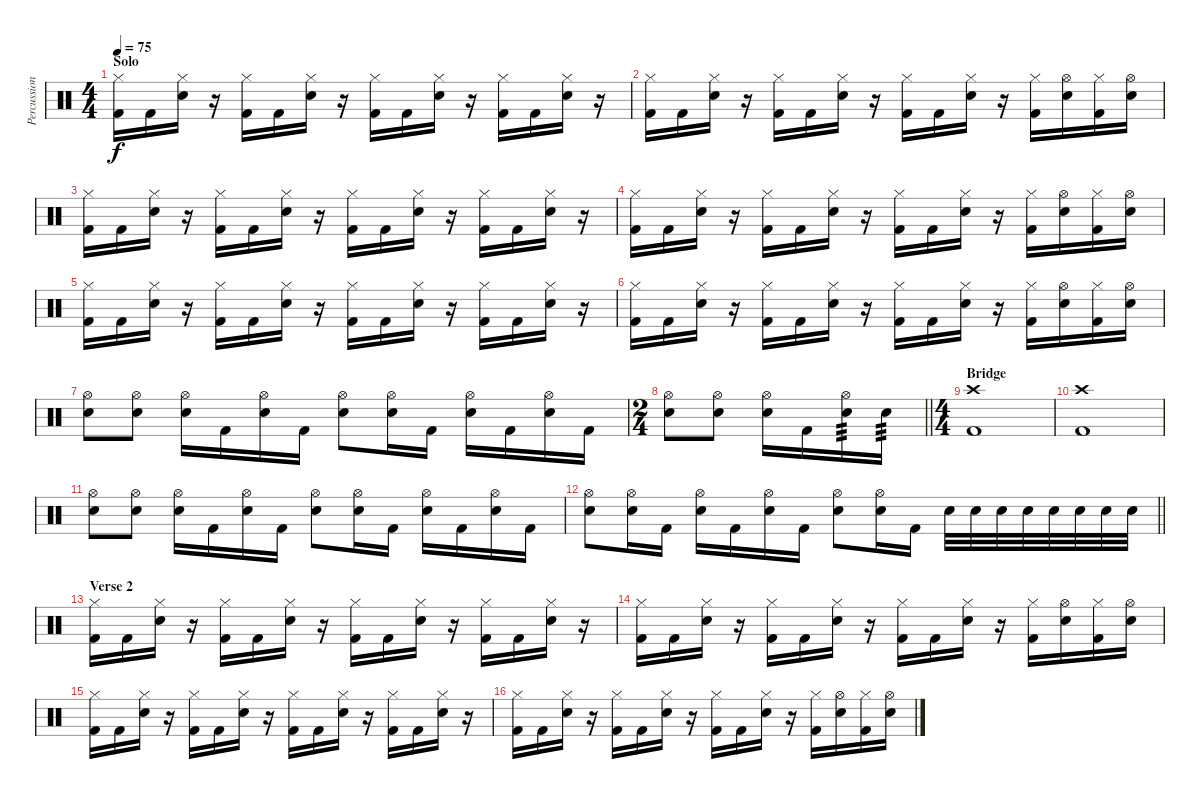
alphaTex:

\track ("Percussion" "Percussion") {instrument percussion}
\staff {score}
\articulation defaults
\ts (4 4)
\section ("" "Solo")
\tempo 75
\clef neutral
\ks c
("Hi-Hat (closed)" "Kick (hit) 2").16{dy f} "Kick (hit) 2".16 ("Hi-Hat (closed)" "Electric Snare (hit)").16 r.16 ("Hi-Hat (closed)" "Kick (hit) 2").16 "Kick (hit) 2".16 ("Hi-Hat (closed)" "Electric Snare (hit)").16 r.16 ("Hi-Hat (closed)" "Kick (hit) 2").16 "Kick (hit) 2".16 ("Hi-Hat (closed)" "Electric Snare (hit)").16 r.16 ("Hi-Hat (closed)" "Kick (hit) 2").16 "Kick (hit) 2".16 ("Hi-Hat (closed)" "Electric Snare (hit)").16 r.16 |
("Hi-Hat (closed)" "Kick (hit) 2").16 "Kick (hit) 2".16 ("Hi-Hat (closed)" "Electric Snare (hit)").16 r.16 ("Hi-Hat (closed)" "Kick (hit) 2").16 "Kick (hit) 2".16 ("Hi-Hat (closed)" "Electric Snare (hit)").16 r.16 ("Hi-Hat (closed)" "Kick (hit) 2").16 "Kick (hit) 2".16 ("Hi-Hat (closed)" "Electric Snare (hit)").16 r.16 ("Hi-Hat (closed)" "Kick (hit) 2").16 ("Hi-Hat (open)" "Electric Snare (hit)").16 ("Hi-Hat (closed)" "Kick (hit) 2").16 ("Hi-Hat (open)" "Electric Snare (hit)").16 |
("Hi-Hat (closed)" "Kick (hit) 2").16 "Kick (hit) 2".16 ("Hi-Hat (closed)" "Electric Snare (hit)").16 r.16 ("Hi-Hat (closed)" "Kick (hit) 2").16 "Kick (hit) 2".16 ("Hi-Hat (closed)" "Electric Snare (hit)").16 r.16 ("Hi-Hat (closed)" "Kick (hit) 2").16 "Kick (hit) 2".16 ("Hi-Hat (closed)" "Electric Snare (hit)").16 r.16 ("Hi-Hat (closed)" "Kick (hit) 2").16 "Kick (hit) 2".16 ("Hi-Hat (closed)" "Electric Snare (hit)").16 r.16 |
("Hi-Hat (closed)" "Kick (hit) 2").16 "Kick (hit) 2".16 ("Hi-Hat (closed)" "Electric Snare (hit)").16 r.16 ("Hi-Hat (closed)" "Kick (hit) 2").16 "Kick (hit) 2".16 ("Hi-Hat (closed)" "Electric Snare (hit)").16 r.16 ("Hi-Hat (closed)" "Kick (hit) 2").16 "Kick (hit) 2".16 ("Hi-Hat (closed)" "Electric Snare (hit)").16 r.16 ("Hi-Hat (closed)" "Kick (hit) 2").16 ("Hi-Hat (open)" "Electric Snare (hit)").16 ("Hi-Hat (closed)" "Kick (hit) 2").16 ("Hi-Hat (open)" "Electric Snare (hit)").16 |
("Hi-Hat (closed)" "Kick (hit) 2").16 "Kick (hit) 2".16 ("Hi-Hat (closed)" "Electric Snare (hit)").16 r.16 ("Hi-Hat (closed)" "Kick (hit) 2").16 "Kick (hit) 2".16 ("Hi-Hat (closed)" "Electric Snare (hit)").16 r.16 ("Hi-Hat (closed)" "Kick (hit) 2").16 "Kick (hit) 2".16 ("Hi-Hat (closed)" "Electric Snare (hit)").16 r.16 ("Hi-Hat (closed)" "Kick (hit) 2").16 "Kick (hit) 2".16 ("Hi-Hat (closed)" "Electric Snare (hit)").16 r.16 |
("Hi-Hat (closed)" "Kick (hit) 2").16 "Kick (hit) 2".16 ("Hi-Hat (closed)" "Electric Snare (hit)").16 r.16 ("Hi-Hat (closed)" "Kick (hit) 2").16 "Kick (hit) 2".16 ("Hi-Hat (closed)" "Electric Snare (hit)").16 r.16 ("Hi-Hat (closed)" "Kick (hit) 2").16 "Kick (hit) 2".16 ("Hi-Hat (closed)" "Electric Snare (hit)").16 r.16 ("Hi-Hat (closed)" "Kick (hit) 2").16 ("Hi-Hat (open)" "Electric Snare (hit)").16 ("Hi-Hat (closed)" "Kick (hit) 2").16 ("Hi-Hat (open)" "Electric Snare (hit)").16 |
("Hi-Hat (open)" "Snare (hit) 2").8 ("Hi-Hat (open)" "Snare (hit) 2").8 ("Hi-Hat (open)" "Snare (hit) 2").16 "Kick (hit) 2".16 ("Hi-Hat (open)" "Snare (hit) 2").16 "Kick (hit) 2".16 ("Hi-Hat (open)" "Snare (hit) 2").8 ("Hi-Hat (open)" "Snare (hit) 2").16 "Kick (hit) 2".16 ("Hi-Hat (open)" "Snare (hit) 2").16 "Kick (hit) 2".16 ("Hi-Hat (open)" "Snare (hit) 2").16 "Kick (hit) 2".16 |
\ts (2 4)
\barLineRight lightlight
("Hi-Hat (open)" "Snare (hit) 2").8 ("Hi-Hat (open)" "Snare (hit) 2").8 ("Hi-Hat (open)" "Snare (hit) 2").16 "Kick (hit) 2".16 ("Hi-Hat (open)" "Snare (hit) 2").16{tp 3} "Snare (hit) 2".16{tp 3} |
\ts (4 4)
\section ("" "Bridge")
("Crash high (hit)" "Kick (hit) 2").1 |
("Crash high (hit)" "Kick (hit) 2").1 |
("Hi-Hat (open)" "Snare (hit) 2").8 ("Hi-Hat (open)" "Snare (hit) 2").8 ("Hi-Hat (open)" "Snare (hit) 2").16 "Kick (hit) 2".16 ("Hi-Hat (open)" "Snare (hit) 2").16 "Kick (hit) 2".16 ("Hi-Hat (open)" "Snare (hit) 2").8 ("Hi-Hat (open)" "Snare (hit) 2").16 "Kick (hit) 2".16 ("Hi-Hat (open)" "Snare (hit) 2").16 "Kick (hit) 2".16 ("Hi-Hat (open)" "Snare (hit) 2").16 "Kick (hit) 2".16 |
\barLineRight lightlight
("Hi-Hat (open)" "Snare (hit) 2").8 ("Hi-Hat (open)" "Snare (hit) 2").16 "Kick (hit) 2".16 ("Hi-Hat (open)" "Snare (hit) 2").16 "Kick (hit) 2".16 ("Hi-Hat (open)" "Snare (hit) 2").16 "Kick (hit) 2".16 ("Hi-Hat (open)" "Snare (hit) 2").8 ("Hi-Hat (open)" "Snare (hit) 2").16 "Kick (hit) 2".16 "Snare (hit) 2".32 "Snare (hit) 2".32 "Snare (hit) 2".32 "Snare (hit) 2".32 "Snare (hit) 2".32 "Snare (hit) 2".32 "Snare (hit) 2".32 "Snare (hit) 2".32 |
\section ("" "Verse 2")
("Hi-Hat (closed)" "Kick (hit) 2").16 "Kick (hit) 2".16 ("Hi-Hat (closed)" "Electric Snare (hit)").16 r.16 ("Hi-Hat (closed)" "Kick (hit) 2").16 "Kick (hit) 2".16 ("Hi-Hat (closed)" "Electric Snare (hit)").16 r.16 ("Hi-Hat (closed)" "Kick (hit) 2").16 "Kick (hit) 2".16 ("Hi-Hat (closed)" "Electric Snare (hit)").16 r.16 ("Hi-Hat (closed)" "Kick (hit) 2").16 "Kick (hit) 2".16 ("Hi-Hat (closed)" "Electric Snare (hit)").16 r.16 |
("Hi-Hat (closed)" "Kick (hit) 2").16 "Kick (hit) 2".16 ("Hi-Hat (closed)" "Electric Snare (hit)").16 r.16 ("Hi-Hat (closed)" "Kick (hit) 2").16 "Kick (hit) 2".16 ("Hi-Hat (closed)" "Electric Snare (hit)").16 r.16 ("Hi-Hat (closed)" "Kick (hit) 2").16 "Kick (hit) 2".16 ("Hi-Hat (closed)" "Electric Snare (hit)").16 r.16 ("Hi-Hat (closed)" "Kick (hit) 2").16 ("Hi-Hat (open)" "Electric Snare (hit)").16 ("Hi-Hat (closed)" "Kick (hit) 2").16 ("Hi-Hat (open)" "Electric Snare (hit)").16 |
("Hi-Hat (closed)" "Kick (hit) 2").16 "Kick (hit) 2".16 ("Hi-Hat (closed)" "Electric Snare (hit)").16 r.16 ("Hi-Hat (closed)" "Kick (hit) 2").16 "Kick (hit) 2".16 ("Hi-Hat (closed)" "Electric Snare (hit)").16 r.16 ("Hi-Hat (closed)" "Kick (hit) 2").16 "Kick (hit) 2".16 ("Hi-Hat (closed)" "Electric Snare (hit)").16 r.16 ("Hi-Hat (closed)" "Kick (hit) 2").16 "Kick (hit) 2".16 ("Hi-Hat (closed)" "Electric Snare (hit)").16 r.16 |
("Hi-Hat (closed)" "Kick (hit) 2").16 "Kick (hit) 2".16 ("Hi-Hat (closed)" "Electric Snare (hit)").16 r.16 ("Hi-Hat (closed)" "Kick (hit) 2").16 "Kick (hit) 2".16 ("Hi-Hat (closed)" "Electric Snare (hit)").16 r.16 ("Hi-Hat (closed)" "Kick (hit) 2").16 "Kick (hit) 2".16 ("Hi-Hat (closed)" "Electric Snare (hit)").16 r.16 ("Hi-Hat (closed)" "Kick (hit) 2").16 ("Hi-Hat (open)" "Electric Snare (hit)").16 ("Hi-Hat (closed)" "Kick (hit) 2").16 ("Hi-Hat (open)" "Electric Snare (hit)").16
